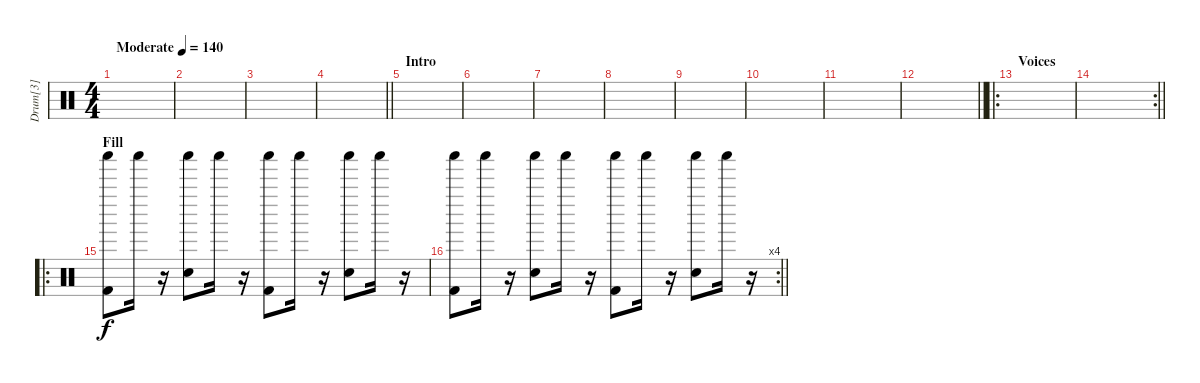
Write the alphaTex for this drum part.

\track ("Drum[3]" "Drum[3]") {instrument percussion}
\staff {score}
\articulation defaults
\ts (4 4)
\tempo (140 "Moderate")
\clef neutral
\ks c
|
|
|
\barLineRight lightlight
|
\section ("" "Intro")
|
|
|
|
|
|
|
\barLineRight lightlight
|
\ro
\section ("" "Voices")
|
\rc 2
\barLineRight lightlight
|
\ro
\section ("" "Fill")
("Kick (hit) 2" "Shaker (hit)").8{volume 10} "Shaker (hit)".16 r.16 ("Electric Snare (hit)" "Shaker (hit)").8 "Shaker (hit)".16 r.16 ("Kick (hit) 2" "Shaker (hit)").8 "Shaker (hit)".16 r.16 ("Electric Snare (hit)" "Shaker (hit)").8 "Shaker (hit)".16 r.16 |
\rc 4
\barLineRight lightlight
("Kick (hit) 2" "Shaker (hit)").8 "Shaker (hit)".16 r.16 ("Electric Snare (hit)" "Shaker (hit)").8 "Shaker (hit)".16 r.16 ("Kick (hit) 2" "Shaker (hit)").8 "Shaker (hit)".16 r.16 ("Electric Snare (hit)" "Shaker (hit)").8 "Shaker (hit)".16 r.16
